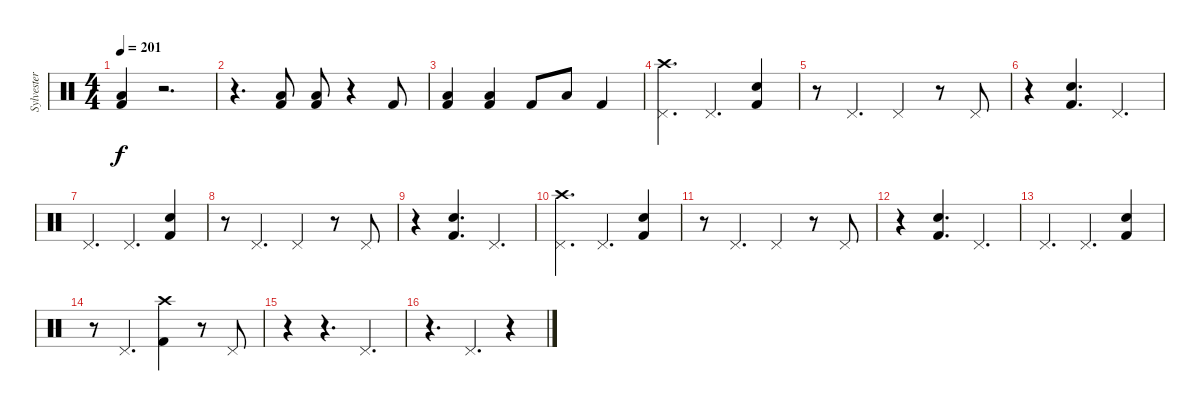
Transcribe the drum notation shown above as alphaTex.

\track ("Sylvester Schlegel" "Sylvester ") {instrument percussion}
\staff {score}
\articulation defaults
\ts (4 4)
\tempo 201
\clef neutral
\ks c
("Low Tom (hit)" "Kick (hit) 2").4{dy f} r.2{d} |
r.4{d} ("Low Tom (hit)" "Kick (hit) 2").8 ("Low Tom (hit)" "Kick (hit) 2").8 r.4 "Kick (hit) 2".8 |
("Low Tom (hit)" "Kick (hit) 2").4 ("Low Tom (hit)" "Kick (hit) 2").4 "Kick (hit) 2".8 "Low Tom (hit)".8 "Kick (hit) 2".4 |
("Crash high (hit)" "Pedal Hi-Hat (hit)").4{d} "Pedal Hi-Hat (hit)".4{d} ("Electric Snare (hit)" "Kick (hit) 2").4 |
r.8 "Pedal Hi-Hat (hit)".4{d} "Pedal Hi-Hat (hit)".4 r.8 "Pedal Hi-Hat (hit)".8 |
r.4 ("Electric Snare (hit)" "Kick (hit) 2").4{d} "Pedal Hi-Hat (hit)".4{d} |
"Pedal Hi-Hat (hit)".4{d} "Pedal Hi-Hat (hit)".4{d} ("Electric Snare (hit)" "Kick (hit) 2").4 |
r.8 "Pedal Hi-Hat (hit)".4{d} "Pedal Hi-Hat (hit)".4 r.8 "Pedal Hi-Hat (hit)".8 |
r.4 ("Electric Snare (hit)" "Kick (hit) 2").4{d} "Pedal Hi-Hat (hit)".4{d} |
("Crash high (hit)" "Pedal Hi-Hat (hit)").4{d} "Pedal Hi-Hat (hit)".4{d} ("Electric Snare (hit)" "Kick (hit) 2").4 |
r.8 "Pedal Hi-Hat (hit)".4{d} "Pedal Hi-Hat (hit)".4 r.8 "Pedal Hi-Hat (hit)".8 |
r.4 ("Electric Snare (hit)" "Kick (hit) 2").4{d} "Pedal Hi-Hat (hit)".4{d} |
"Pedal Hi-Hat (hit)".4{d} "Pedal Hi-Hat (hit)".4{d} ("Electric Snare (hit)" "Kick (hit) 2").4 |
r.8 "Pedal Hi-Hat (hit)".4{d} ("Crash high (hit)" "Kick (hit) 2").4 r.8 "Pedal Hi-Hat (hit)".8 |
r.4 r.4{d} "Pedal Hi-Hat (hit)".4{d} |
r.4{d} "Pedal Hi-Hat (hit)".4{d} r.4
